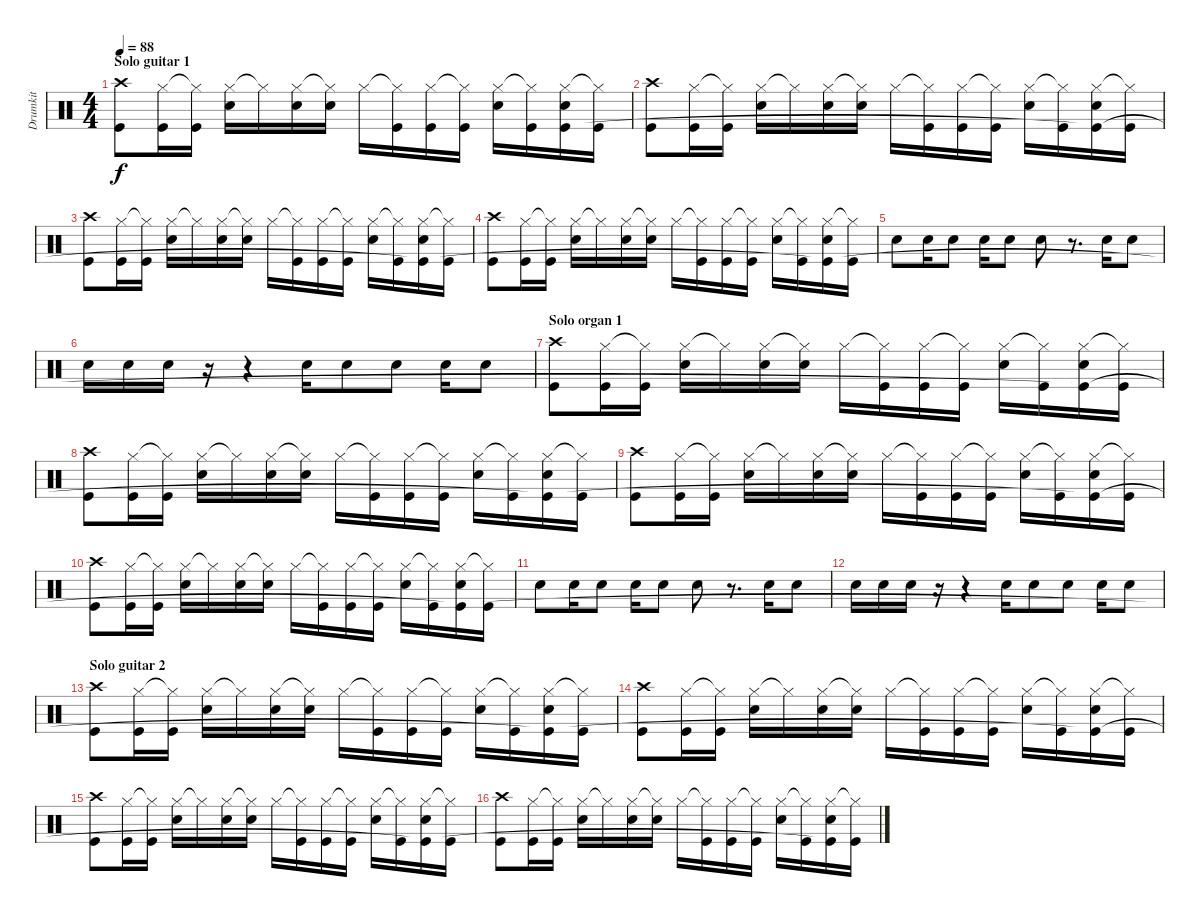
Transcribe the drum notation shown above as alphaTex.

\track ("Drumkit" "Drumkit") {instrument percussion}
\staff {score}
\articulation defaults
\ts (4 4)
\section ("" "Solo guitar 1")
\tempo 88
\clef neutral
\ks c
("Crash high (hit)" "Kick (hit)").8{dy f} ("Hi-Hat (closed)" "Kick (hit)").16 ("Hi-Hat (closed)"{t} "Kick (hit)").16 ("Hi-Hat (closed)" "Snare (hit) 2").16 "Hi-Hat (closed)"{t}.16 ("Hi-Hat (closed)" "Snare (hit) 2").16 ("Hi-Hat (closed)"{t} "Snare (hit) 2").16 "Hi-Hat (closed)".16 ("Hi-Hat (closed)"{t} "Kick (hit)").16 ("Hi-Hat (closed)" "Kick (hit)").16 ("Hi-Hat (closed)"{t} "Kick (hit)").16 ("Hi-Hat (closed)" "Snare (hit) 2").16 ("Hi-Hat (closed)"{t} "Kick (hit)").16 ("Hi-Hat (closed)" "Snare (hit) 2" "Kick (hit)").16 ("Hi-Hat (closed)"{t} "Kick (hit)").16 |
("Crash high (hit)" "Kick (hit)").8 ("Hi-Hat (closed)" "Kick (hit)").16 ("Hi-Hat (closed)"{t} "Kick (hit)").16 ("Hi-Hat (closed)" "Snare (hit) 2").16 "Hi-Hat (closed)"{t}.16 ("Hi-Hat (closed)" "Snare (hit) 2").16 ("Hi-Hat (closed)"{t} "Snare (hit) 2").16 "Hi-Hat (closed)".16 ("Hi-Hat (closed)"{t} "Kick (hit)").16 ("Hi-Hat (closed)" "Kick (hit)").16 ("Hi-Hat (closed)"{t} "Kick (hit)").16 ("Hi-Hat (closed)" "Snare (hit) 2").16 ("Hi-Hat (closed)"{t} "Kick (hit)").16 ("Hi-Hat (closed)" "Snare (hit) 2" "Kick (hit)"{t}).16 ("Hi-Hat (closed)"{t} "Kick (hit)").16 |
("Crash high (hit)" "Kick (hit)").8 ("Hi-Hat (closed)" "Kick (hit)").16 ("Hi-Hat (closed)"{t} "Kick (hit)").16 ("Hi-Hat (closed)" "Snare (hit) 2").16 "Hi-Hat (closed)"{t}.16 ("Hi-Hat (closed)" "Snare (hit) 2").16 ("Hi-Hat (closed)"{t} "Snare (hit) 2").16 "Hi-Hat (closed)".16 ("Hi-Hat (closed)"{t} "Kick (hit)").16 ("Hi-Hat (closed)" "Kick (hit)").16 ("Hi-Hat (closed)"{t} "Kick (hit)").16 ("Hi-Hat (closed)" "Snare (hit) 2").16 ("Hi-Hat (closed)"{t} "Kick (hit)").16 ("Hi-Hat (closed)" "Snare (hit) 2" "Kick (hit)"{t}).16 ("Hi-Hat (closed)"{t} "Kick (hit)").16 |
("Crash high (hit)" "Kick (hit)").8 ("Hi-Hat (closed)" "Kick (hit)").16 ("Hi-Hat (closed)"{t} "Kick (hit)").16 ("Hi-Hat (closed)" "Snare (hit) 2").16 "Hi-Hat (closed)"{t}.16 ("Hi-Hat (closed)" "Snare (hit) 2").16 ("Hi-Hat (closed)"{t} "Snare (hit) 2").16 "Hi-Hat (closed)".16 ("Hi-Hat (closed)"{t} "Kick (hit)").16 ("Hi-Hat (closed)" "Kick (hit)").16 ("Hi-Hat (closed)"{t} "Kick (hit)").16 ("Hi-Hat (closed)" "Snare (hit) 2").16 ("Hi-Hat (closed)"{t} "Kick (hit)").16 ("Hi-Hat (closed)" "Snare (hit) 2" "Kick (hit)"{t}).16 ("Hi-Hat (closed)"{t} "Kick (hit)").16 |
"Snare (hit) 2".8 "Snare (hit) 2".16 "Snare (hit) 2".8 "Snare (hit) 2".16 "Snare (hit) 2".8 "Snare (hit) 2".8 r.8{d} "Snare (hit) 2".16 "Snare (hit) 2".8 |
"Snare (hit) 2".16 "Snare (hit) 2".16 "Snare (hit) 2".16 r.16 r.4 "Snare (hit) 2".16 "Snare (hit) 2".8 "Snare (hit) 2".8 "Snare (hit) 2".16 "Snare (hit) 2".8 |
\section ("" "Solo organ 1")
("Crash high (hit)" "Kick (hit)").8 ("Hi-Hat (closed)" "Kick (hit)").16 ("Hi-Hat (closed)"{t} "Kick (hit)").16 ("Hi-Hat (closed)" "Snare (hit) 2").16 "Hi-Hat (closed)"{t}.16 ("Hi-Hat (closed)" "Snare (hit) 2").16 ("Hi-Hat (closed)"{t} "Snare (hit) 2").16 "Hi-Hat (closed)".16 ("Hi-Hat (closed)"{t} "Kick (hit)").16 ("Hi-Hat (closed)" "Kick (hit)").16 ("Hi-Hat (closed)"{t} "Kick (hit)").16 ("Hi-Hat (closed)" "Snare (hit) 2").16 ("Hi-Hat (closed)"{t} "Kick (hit)").16 ("Hi-Hat (closed)" "Snare (hit) 2" "Kick (hit)"{t}).16 ("Hi-Hat (closed)"{t} "Kick (hit)").16 |
("Crash high (hit)" "Kick (hit)").8 ("Hi-Hat (closed)" "Kick (hit)").16 ("Hi-Hat (closed)"{t} "Kick (hit)").16 ("Hi-Hat (closed)" "Snare (hit) 2").16 "Hi-Hat (closed)"{t}.16 ("Hi-Hat (closed)" "Snare (hit) 2").16 ("Hi-Hat (closed)"{t} "Snare (hit) 2").16 "Hi-Hat (closed)".16 ("Hi-Hat (closed)"{t} "Kick (hit)").16 ("Hi-Hat (closed)" "Kick (hit)").16 ("Hi-Hat (closed)"{t} "Kick (hit)").16 ("Hi-Hat (closed)" "Snare (hit) 2").16 ("Hi-Hat (closed)"{t} "Kick (hit)").16 ("Hi-Hat (closed)" "Snare (hit) 2" "Kick (hit)"{t}).16 ("Hi-Hat (closed)"{t} "Kick (hit)").16 |
("Crash high (hit)" "Kick (hit)").8 ("Hi-Hat (closed)" "Kick (hit)").16 ("Hi-Hat (closed)"{t} "Kick (hit)").16 ("Hi-Hat (closed)" "Snare (hit) 2").16 "Hi-Hat (closed)"{t}.16 ("Hi-Hat (closed)" "Snare (hit) 2").16 ("Hi-Hat (closed)"{t} "Snare (hit) 2").16 "Hi-Hat (closed)".16 ("Hi-Hat (closed)"{t} "Kick (hit)").16 ("Hi-Hat (closed)" "Kick (hit)").16 ("Hi-Hat (closed)"{t} "Kick (hit)").16 ("Hi-Hat (closed)" "Snare (hit) 2").16 ("Hi-Hat (closed)"{t} "Kick (hit)").16 ("Hi-Hat (closed)" "Snare (hit) 2" "Kick (hit)"{t}).16 ("Hi-Hat (closed)"{t} "Kick (hit)").16 |
("Crash high (hit)" "Kick (hit)").8 ("Hi-Hat (closed)" "Kick (hit)").16 ("Hi-Hat (closed)"{t} "Kick (hit)").16 ("Hi-Hat (closed)" "Snare (hit) 2").16 "Hi-Hat (closed)"{t}.16 ("Hi-Hat (closed)" "Snare (hit) 2").16 ("Hi-Hat (closed)"{t} "Snare (hit) 2").16 "Hi-Hat (closed)".16 ("Hi-Hat (closed)"{t} "Kick (hit)").16 ("Hi-Hat (closed)" "Kick (hit)").16 ("Hi-Hat (closed)"{t} "Kick (hit)").16 ("Hi-Hat (closed)" "Snare (hit) 2").16 ("Hi-Hat (closed)"{t} "Kick (hit)").16 ("Hi-Hat (closed)" "Snare (hit) 2" "Kick (hit)"{t}).16 ("Hi-Hat (closed)"{t} "Kick (hit)").16 |
"Snare (hit) 2".8 "Snare (hit) 2".16 "Snare (hit) 2".8 "Snare (hit) 2".16 "Snare (hit) 2".8 "Snare (hit) 2".8 r.8{d} "Snare (hit) 2".16 "Snare (hit) 2".8 |
"Snare (hit) 2".16 "Snare (hit) 2".16 "Snare (hit) 2".16 r.16 r.4 "Snare (hit) 2".16 "Snare (hit) 2".8 "Snare (hit) 2".8 "Snare (hit) 2".16 "Snare (hit) 2".8 |
\section ("" "Solo guitar 2")
("Crash high (hit)" "Kick (hit)").8 ("Hi-Hat (closed)" "Kick (hit)").16 ("Hi-Hat (closed)"{t} "Kick (hit)").16 ("Hi-Hat (closed)" "Snare (hit) 2").16 "Hi-Hat (closed)"{t}.16 ("Hi-Hat (closed)" "Snare (hit) 2").16 ("Hi-Hat (closed)"{t} "Snare (hit) 2").16 "Hi-Hat (closed)".16 ("Hi-Hat (closed)"{t} "Kick (hit)").16 ("Hi-Hat (closed)" "Kick (hit)").16 ("Hi-Hat (closed)"{t} "Kick (hit)").16 ("Hi-Hat (closed)" "Snare (hit) 2").16 ("Hi-Hat (closed)"{t} "Kick (hit)").16 ("Hi-Hat (closed)" "Snare (hit) 2" "Kick (hit)"{t}).16 ("Hi-Hat (closed)"{t} "Kick (hit)").16 |
("Crash high (hit)" "Kick (hit)").8 ("Hi-Hat (closed)" "Kick (hit)").16 ("Hi-Hat (closed)"{t} "Kick (hit)").16 ("Hi-Hat (closed)" "Snare (hit) 2").16 "Hi-Hat (closed)"{t}.16 ("Hi-Hat (closed)" "Snare (hit) 2").16 ("Hi-Hat (closed)"{t} "Snare (hit) 2").16 "Hi-Hat (closed)".16 ("Hi-Hat (closed)"{t} "Kick (hit)").16 ("Hi-Hat (closed)" "Kick (hit)").16 ("Hi-Hat (closed)"{t} "Kick (hit)").16 ("Hi-Hat (closed)" "Snare (hit) 2").16 ("Hi-Hat (closed)"{t} "Kick (hit)").16 ("Hi-Hat (closed)" "Snare (hit) 2" "Kick (hit)"{t}).16 ("Hi-Hat (closed)"{t} "Kick (hit)").16 |
("Crash high (hit)" "Kick (hit)").8 ("Hi-Hat (closed)" "Kick (hit)").16 ("Hi-Hat (closed)"{t} "Kick (hit)").16 ("Hi-Hat (closed)" "Snare (hit) 2").16 "Hi-Hat (closed)"{t}.16 ("Hi-Hat (closed)" "Snare (hit) 2").16 ("Hi-Hat (closed)"{t} "Snare (hit) 2").16 "Hi-Hat (closed)".16 ("Hi-Hat (closed)"{t} "Kick (hit)").16 ("Hi-Hat (closed)" "Kick (hit)").16 ("Hi-Hat (closed)"{t} "Kick (hit)").16 ("Hi-Hat (closed)" "Snare (hit) 2").16 ("Hi-Hat (closed)"{t} "Kick (hit)").16 ("Hi-Hat (closed)" "Snare (hit) 2" "Kick (hit)"{t}).16 ("Hi-Hat (closed)"{t} "Kick (hit)").16 |
("Crash high (hit)" "Kick (hit)").8 ("Hi-Hat (closed)" "Kick (hit)").16 ("Hi-Hat (closed)"{t} "Kick (hit)").16 ("Hi-Hat (closed)" "Snare (hit) 2").16 "Hi-Hat (closed)"{t}.16 ("Hi-Hat (closed)" "Snare (hit) 2").16 ("Hi-Hat (closed)"{t} "Snare (hit) 2").16 "Hi-Hat (closed)".16 ("Hi-Hat (closed)"{t} "Kick (hit)").16 ("Hi-Hat (closed)" "Kick (hit)").16 ("Hi-Hat (closed)"{t} "Kick (hit)").16 ("Hi-Hat (closed)" "Snare (hit) 2").16 ("Hi-Hat (closed)"{t} "Kick (hit)").16 ("Hi-Hat (closed)" "Snare (hit) 2" "Kick (hit)"{t}).16 ("Hi-Hat (closed)"{t} "Kick (hit)").16
